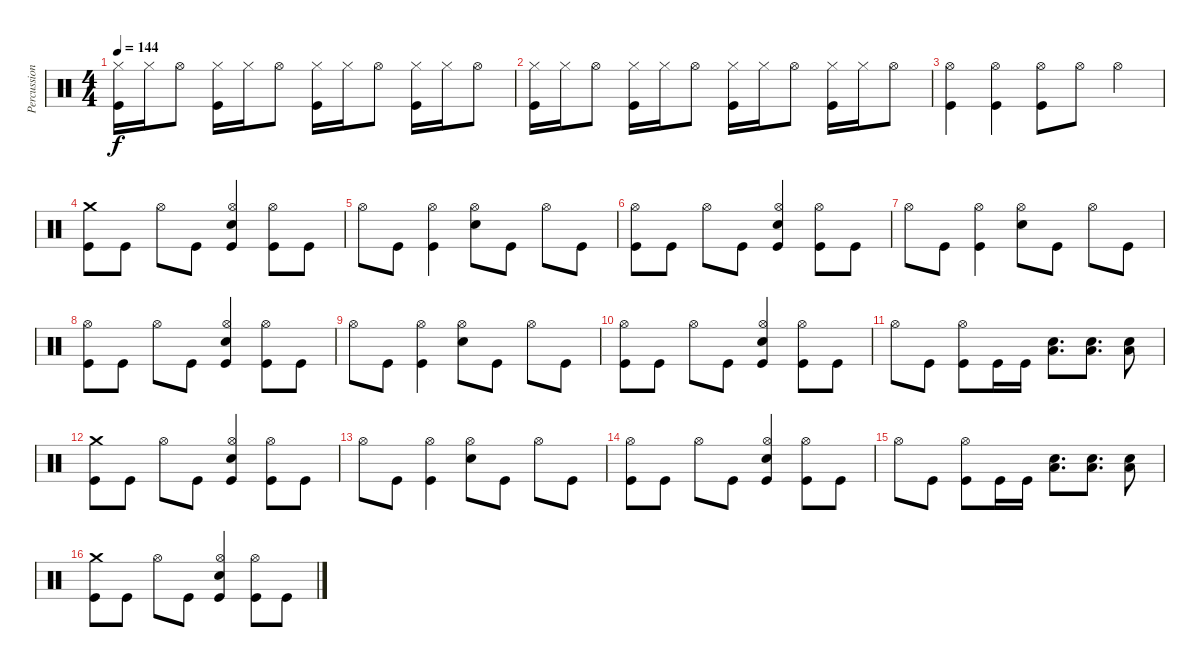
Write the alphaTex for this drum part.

\track ("Percussion" "Percussion") {instrument percussion}
\staff {score}
\articulation defaults
\ts (4 4)
\tempo 144
\clef neutral
\ks c
("Hi-Hat (closed)" "Kick (hit)").16{dy f} "Hi-Hat (closed)".16 "Hi-Hat (open)".8 ("Hi-Hat (closed)" "Kick (hit)").16 "Hi-Hat (closed)".16 "Hi-Hat (open)".8 ("Hi-Hat (closed)" "Kick (hit)").16 "Hi-Hat (closed)".16 "Hi-Hat (open)".8 ("Hi-Hat (closed)" "Kick (hit)").16 "Hi-Hat (closed)".16 "Hi-Hat (open)".8 |
("Hi-Hat (closed)" "Kick (hit)").16 "Hi-Hat (closed)".16 "Hi-Hat (open)".8 ("Hi-Hat (closed)" "Kick (hit)").16 "Hi-Hat (closed)".16 "Hi-Hat (open)".8 ("Hi-Hat (closed)" "Kick (hit)").16 "Hi-Hat (closed)".16 "Hi-Hat (open)".8 ("Hi-Hat (closed)" "Kick (hit)").16 "Hi-Hat (closed)".16 "Hi-Hat (open)".8 |
("Hi-Hat (open)" "Kick (hit)").4 ("Hi-Hat (open)" "Kick (hit)").4 ("Hi-Hat (open)" "Kick (hit)").8 "Hi-Hat (open)".8 "Hi-Hat (open)".4 |
("Crash medium (hit)" "Kick (hit)").8 "Kick (hit)".8 "Hi-Hat (open)".8 "Kick (hit)".8 ("Hi-Hat (open)" "Electric Snare (hit)" "Kick (hit)").4 ("Hi-Hat (open)" "Kick (hit)").8 "Kick (hit)".8 |
"Hi-Hat (open)".8 "Kick (hit)".8 ("Hi-Hat (open)" "Kick (hit)").4 ("Hi-Hat (open)" "Electric Snare (hit)").8 "Kick (hit)".8 "Hi-Hat (open)".8 "Kick (hit)".8 |
("Hi-Hat (open)" "Kick (hit)").8 "Kick (hit)".8 "Hi-Hat (open)".8 "Kick (hit)".8 ("Hi-Hat (open)" "Electric Snare (hit)" "Kick (hit)").4 ("Hi-Hat (open)" "Kick (hit)").8 "Kick (hit)".8 |
"Hi-Hat (open)".8 "Kick (hit)".8 ("Hi-Hat (open)" "Kick (hit)").4 ("Hi-Hat (open)" "Electric Snare (hit)").8 "Kick (hit)".8 "Hi-Hat (open)".8 "Kick (hit)".8 |
("Hi-Hat (open)" "Kick (hit)").8 "Kick (hit)".8 "Hi-Hat (open)".8 "Kick (hit)".8 ("Hi-Hat (open)" "Electric Snare (hit)" "Kick (hit)").4 ("Hi-Hat (open)" "Kick (hit)").8 "Kick (hit)".8 |
"Hi-Hat (open)".8 "Kick (hit)".8 ("Hi-Hat (open)" "Kick (hit)").4 ("Hi-Hat (open)" "Electric Snare (hit)").8 "Kick (hit)".8 "Hi-Hat (open)".8 "Kick (hit)".8 |
("Hi-Hat (open)" "Kick (hit)").8 "Kick (hit)".8 "Hi-Hat (open)".8 "Kick (hit)".8 ("Hi-Hat (open)" "Electric Snare (hit)" "Kick (hit)").4 ("Hi-Hat (open)" "Kick (hit)").8 "Kick (hit)".8 |
"Hi-Hat (open)".8 "Kick (hit)".8 ("Hi-Hat (open)" "Kick (hit)").8 "Kick (hit)".16 "Kick (hit)".16 ("Electric Snare (hit)" "Low Floor Tom (hit)").8{d} ("Electric Snare (hit)" "Low Floor Tom (hit)").8{d} ("Electric Snare (hit)" "Low Floor Tom (hit)").8 |
("Crash medium (hit)" "Kick (hit)").8 "Kick (hit)".8 "Hi-Hat (open)".8 "Kick (hit)".8 ("Hi-Hat (open)" "Electric Snare (hit)" "Kick (hit)").4 ("Hi-Hat (open)" "Kick (hit)").8 "Kick (hit)".8 |
"Hi-Hat (open)".8 "Kick (hit)".8 ("Hi-Hat (open)" "Kick (hit)").4 ("Hi-Hat (open)" "Electric Snare (hit)").8 "Kick (hit)".8 "Hi-Hat (open)".8 "Kick (hit)".8 |
("Hi-Hat (open)" "Kick (hit)").8 "Kick (hit)".8 "Hi-Hat (open)".8 "Kick (hit)".8 ("Hi-Hat (open)" "Electric Snare (hit)" "Kick (hit)").4 ("Hi-Hat (open)" "Kick (hit)").8 "Kick (hit)".8 |
"Hi-Hat (open)".8 "Kick (hit)".8 ("Hi-Hat (open)" "Kick (hit)").8 "Kick (hit)".16 "Kick (hit)".16 ("Electric Snare (hit)" "Low Floor Tom (hit)").8{d} ("Electric Snare (hit)" "Low Floor Tom (hit)").8{d} ("Electric Snare (hit)" "Low Floor Tom (hit)").8 |
("Crash medium (hit)" "Kick (hit)").8 "Kick (hit)".8 "Hi-Hat (open)".8 "Kick (hit)".8 ("Hi-Hat (open)" "Electric Snare (hit)" "Kick (hit)").4 ("Hi-Hat (open)" "Kick (hit)").8 "Kick (hit)".8
